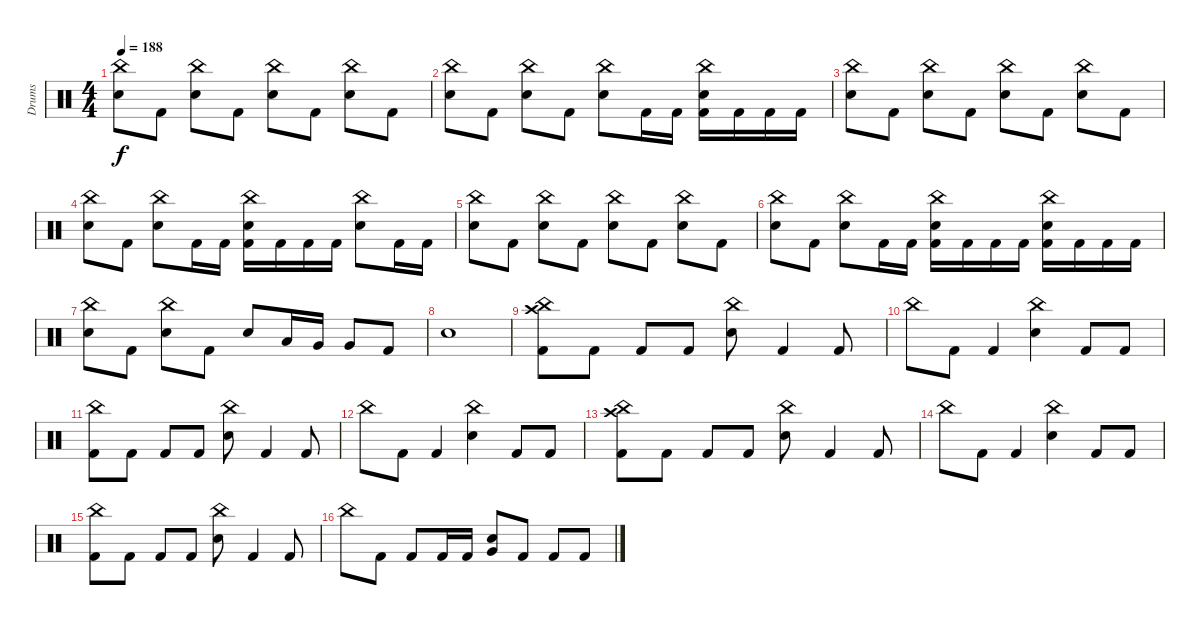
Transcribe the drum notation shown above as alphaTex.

\track ("Drums" "Drums") {instrument percussion}
\staff {score}
\articulation defaults
\ts (4 4)
\tempo 188
\clef neutral
\ks c
("China (hit)" "Electric Snare (hit)").8{dy f} "Kick (hit) 2".8 ("China (hit)" "Electric Snare (hit)").8 "Kick (hit) 2".8 ("China (hit)" "Electric Snare (hit)").8 "Kick (hit) 2".8 ("China (hit)" "Electric Snare (hit)").8 "Kick (hit) 2".8 |
("China (hit)" "Electric Snare (hit)").8 "Kick (hit) 2".8 ("China (hit)" "Electric Snare (hit)").8 "Kick (hit) 2".8 ("China (hit)" "Electric Snare (hit)").8 "Kick (hit) 2".16 "Kick (hit) 2".16 ("China (hit)" "Electric Snare (hit)" "Kick (hit) 2").16 "Kick (hit) 2".16 "Kick (hit) 2".16 "Kick (hit) 2".16 |
("China (hit)" "Electric Snare (hit)").8 "Kick (hit) 2".8 ("China (hit)" "Electric Snare (hit)").8 "Kick (hit) 2".8 ("China (hit)" "Electric Snare (hit)").8 "Kick (hit) 2".8 ("China (hit)" "Electric Snare (hit)").8 "Kick (hit) 2".8 |
("China (hit)" "Electric Snare (hit)").8 "Kick (hit) 2".8 ("China (hit)" "Electric Snare (hit)").8 "Kick (hit) 2".16 "Kick (hit) 2".16 ("China (hit)" "Electric Snare (hit)" "Kick (hit) 2").16 "Kick (hit) 2".16 "Kick (hit) 2".16 "Kick (hit) 2".16 ("China (hit)" "Electric Snare (hit)").8 "Kick (hit) 2".16 "Kick (hit) 2".16 |
("China (hit)" "Electric Snare (hit)").8 "Kick (hit) 2".8 ("China (hit)" "Electric Snare (hit)").8 "Kick (hit) 2".8 ("China (hit)" "Electric Snare (hit)").8 "Kick (hit) 2".8 ("China (hit)" "Electric Snare (hit)").8 "Kick (hit) 2".8 |
("China (hit)" "Electric Snare (hit)").8 "Kick (hit) 2".8 ("China (hit)" "Electric Snare (hit)").8 "Kick (hit) 2".16 "Kick (hit) 2".16 ("China (hit)" "Electric Snare (hit)" "Kick (hit) 2").16 "Kick (hit) 2".16 "Kick (hit) 2".16 "Kick (hit) 2".16 ("China (hit)" "Electric Snare (hit)" "Kick (hit) 2").16 "Kick (hit) 2".16 "Kick (hit) 2".16 "Kick (hit) 2".16 |
("China (hit)" "Electric Snare (hit)").8 "Kick (hit) 2".8 ("China (hit)" "Electric Snare (hit)").8 "Kick (hit) 2".8 "Electric Snare (hit)".8 "Low Tom (hit)".16 "Very Low Tom (hit)".16 "Very Low Tom (hit)".8 "Kick (hit) 2".8 |
"Electric Snare (hit)".1 |
("Crash high (hit)" "China (hit)" "Kick (hit) 2").8 "Kick (hit) 2".8 "Kick (hit) 2".8 "Kick (hit) 2".8 ("China (hit)" "Electric Snare (hit)").8 "Kick (hit) 2".4 "Kick (hit) 2".8 |
"China (hit)".8 "Kick (hit) 2".8 "Kick (hit) 2".4 ("China (hit)" "Electric Snare (hit)").4 "Kick (hit) 2".8 "Kick (hit) 2".8 |
("China (hit)" "Kick (hit) 2").8 "Kick (hit) 2".8 "Kick (hit) 2".8 "Kick (hit) 2".8 ("China (hit)" "Electric Snare (hit)").8 "Kick (hit) 2".4 "Kick (hit) 2".8 |
"China (hit)".8 "Kick (hit) 2".8 "Kick (hit) 2".4 ("China (hit)" "Electric Snare (hit)").4 "Kick (hit) 2".8 "Kick (hit) 2".8 |
("Crash high (hit)" "China (hit)" "Kick (hit) 2").8 "Kick (hit) 2".8 "Kick (hit) 2".8 "Kick (hit) 2".8 ("China (hit)" "Electric Snare (hit)").8 "Kick (hit) 2".4 "Kick (hit) 2".8 |
"China (hit)".8 "Kick (hit) 2".8 "Kick (hit) 2".4 ("China (hit)" "Electric Snare (hit)").4 "Kick (hit) 2".8 "Kick (hit) 2".8 |
("China (hit)" "Kick (hit) 2").8 "Kick (hit) 2".8 "Kick (hit) 2".8 "Kick (hit) 2".8 ("China (hit)" "Electric Snare (hit)").8 "Kick (hit) 2".4 "Kick (hit) 2".8 |
"China (hit)".8 "Kick (hit) 2".8 "Kick (hit) 2".8 "Kick (hit) 2".16 "Kick (hit) 2".16 ("Very Low Tom (hit)" "Electric Snare (hit)").8 "Kick (hit) 2".8 "Kick (hit) 2".8 "Kick (hit) 2".8
